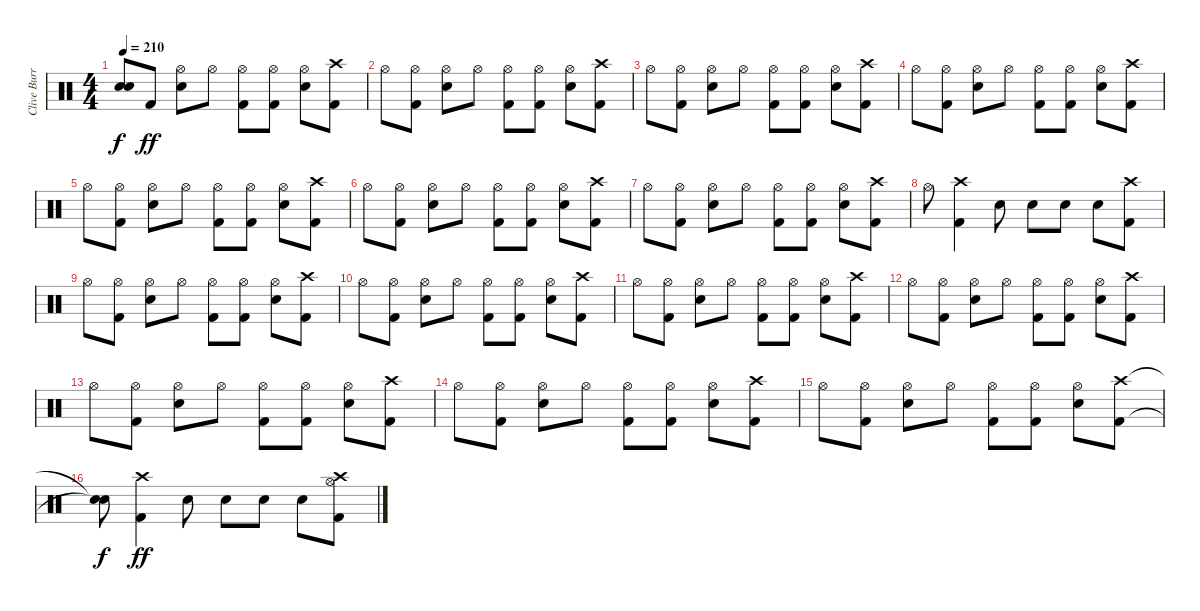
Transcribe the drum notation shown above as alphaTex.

\track ("Clive Burr" "Clive Burr") {instrument percussion}
\staff {score}
\articulation defaults
\ts (4 4)
\tempo 210
\clef neutral
\ks c
("Snare (hit)"{t} "Snare (hit)"{t}).8{dy f} "Kick (hit) 2".8{dy ff} ("Snare (hit) 2" "Hi-Hat (open)").8 "Hi-Hat (open)".8 ("Kick (hit) 2" "Hi-Hat (open)").8 ("Kick (hit) 2" "Hi-Hat (open)").8 ("Snare (hit) 2" "Hi-Hat (open)").8 ("Kick (hit) 2" "Crash high (hit)").8 |
"Hi-Hat (open)".8 ("Kick (hit) 2" "Hi-Hat (open)").8 ("Snare (hit) 2" "Hi-Hat (open)").8 "Hi-Hat (open)".8 ("Kick (hit) 2" "Hi-Hat (open)").8 ("Kick (hit) 2" "Hi-Hat (open)").8 ("Snare (hit) 2" "Hi-Hat (open)").8 ("Kick (hit) 2" "Crash high (hit)").8 |
"Hi-Hat (open)".8 ("Kick (hit) 2" "Hi-Hat (open)").8 ("Snare (hit) 2" "Hi-Hat (open)").8 "Hi-Hat (open)".8 ("Kick (hit) 2" "Hi-Hat (open)").8 ("Kick (hit) 2" "Hi-Hat (open)").8 ("Snare (hit) 2" "Hi-Hat (open)").8 ("Kick (hit) 2" "Crash high (hit)").8 |
"Hi-Hat (open)".8 ("Kick (hit) 2" "Hi-Hat (open)").8 ("Snare (hit) 2" "Hi-Hat (open)").8 "Hi-Hat (open)".8 ("Kick (hit) 2" "Hi-Hat (open)").8 ("Kick (hit) 2" "Hi-Hat (open)").8 ("Snare (hit) 2" "Hi-Hat (open)").8 ("Kick (hit) 2" "Crash high (hit)").8 |
"Hi-Hat (open)".8 ("Kick (hit) 2" "Hi-Hat (open)").8 ("Snare (hit) 2" "Hi-Hat (open)").8 "Hi-Hat (open)".8 ("Kick (hit) 2" "Hi-Hat (open)").8 ("Kick (hit) 2" "Hi-Hat (open)").8 ("Snare (hit) 2" "Hi-Hat (open)").8 ("Kick (hit) 2" "Crash high (hit)").8 |
"Hi-Hat (open)".8 ("Kick (hit) 2" "Hi-Hat (open)").8 ("Snare (hit) 2" "Hi-Hat (open)").8 "Hi-Hat (open)".8 ("Kick (hit) 2" "Hi-Hat (open)").8 ("Kick (hit) 2" "Hi-Hat (open)").8 ("Snare (hit) 2" "Hi-Hat (open)").8 ("Kick (hit) 2" "Crash high (hit)").8 |
"Hi-Hat (open)".8 ("Kick (hit) 2" "Hi-Hat (open)").8 ("Snare (hit) 2" "Hi-Hat (open)").8 "Hi-Hat (open)".8 ("Kick (hit) 2" "Hi-Hat (open)").8 ("Kick (hit) 2" "Hi-Hat (open)").8 ("Snare (hit) 2" "Hi-Hat (open)").8 ("Kick (hit) 2" "Crash high (hit)").8 |
"Hi-Hat (open)".8 ("Kick (hit) 2" "Crash high (hit)").4 "Snare (hit) 2".8 "Snare (hit) 2".8 "Snare (hit) 2".8 "Snare (hit) 2".8 ("Kick (hit) 2" "Crash high (hit)").8 |
"Hi-Hat (open)".8 ("Kick (hit) 2" "Hi-Hat (open)").8 ("Snare (hit) 2" "Hi-Hat (open)").8 "Hi-Hat (open)".8 ("Kick (hit) 2" "Hi-Hat (open)").8 ("Kick (hit) 2" "Hi-Hat (open)").8 ("Snare (hit) 2" "Hi-Hat (open)").8 ("Kick (hit) 2" "Crash high (hit)").8 |
"Hi-Hat (open)".8 ("Kick (hit) 2" "Hi-Hat (open)").8 ("Snare (hit) 2" "Hi-Hat (open)").8 "Hi-Hat (open)".8 ("Kick (hit) 2" "Hi-Hat (open)").8 ("Kick (hit) 2" "Hi-Hat (open)").8 ("Snare (hit) 2" "Hi-Hat (open)").8 ("Kick (hit) 2" "Crash high (hit)").8 |
"Hi-Hat (open)".8 ("Kick (hit) 2" "Hi-Hat (open)").8 ("Snare (hit) 2" "Hi-Hat (open)").8 "Hi-Hat (open)".8 ("Kick (hit) 2" "Hi-Hat (open)").8 ("Kick (hit) 2" "Hi-Hat (open)").8 ("Snare (hit) 2" "Hi-Hat (open)").8 ("Kick (hit) 2" "Crash high (hit)").8 |
"Hi-Hat (open)".8 ("Kick (hit) 2" "Hi-Hat (open)").8 ("Snare (hit) 2" "Hi-Hat (open)").8 "Hi-Hat (open)".8 ("Kick (hit) 2" "Hi-Hat (open)").8 ("Kick (hit) 2" "Hi-Hat (open)").8 ("Snare (hit) 2" "Hi-Hat (open)").8 ("Kick (hit) 2" "Crash high (hit)").8 |
"Hi-Hat (open)".8 ("Kick (hit) 2" "Hi-Hat (open)").8 ("Snare (hit) 2" "Hi-Hat (open)").8 "Hi-Hat (open)".8 ("Kick (hit) 2" "Hi-Hat (open)").8 ("Kick (hit) 2" "Hi-Hat (open)").8 ("Snare (hit) 2" "Hi-Hat (open)").8 ("Kick (hit) 2" "Crash high (hit)").8 |
"Hi-Hat (open)".8 ("Kick (hit) 2" "Hi-Hat (open)").8 ("Snare (hit) 2" "Hi-Hat (open)").8 "Hi-Hat (open)".8 ("Kick (hit) 2" "Hi-Hat (open)").8 ("Kick (hit) 2" "Hi-Hat (open)").8 ("Snare (hit) 2" "Hi-Hat (open)").8 ("Kick (hit) 2" "Crash high (hit)").8 |
"Hi-Hat (open)".8 ("Kick (hit) 2" "Hi-Hat (open)").8 ("Snare (hit) 2" "Hi-Hat (open)").8 "Hi-Hat (open)".8 ("Kick (hit) 2" "Hi-Hat (open)").8 ("Kick (hit) 2" "Hi-Hat (open)").8 ("Snare (hit) 2" "Hi-Hat (open)").8 ("Kick (hit) 2" "Crash high (hit)").8 |
("Snare (hit)"{t} "Snare (hit)"{t}).8{dy f} ("Kick (hit) 2" "Crash high (hit)").4{dy ff} "Snare (hit) 2".8 "Snare (hit) 2".8 "Snare (hit) 2".8 "Snare (hit) 2".8 ("Kick (hit) 2" "Hi-Hat (open)" "Crash high (hit)").8
